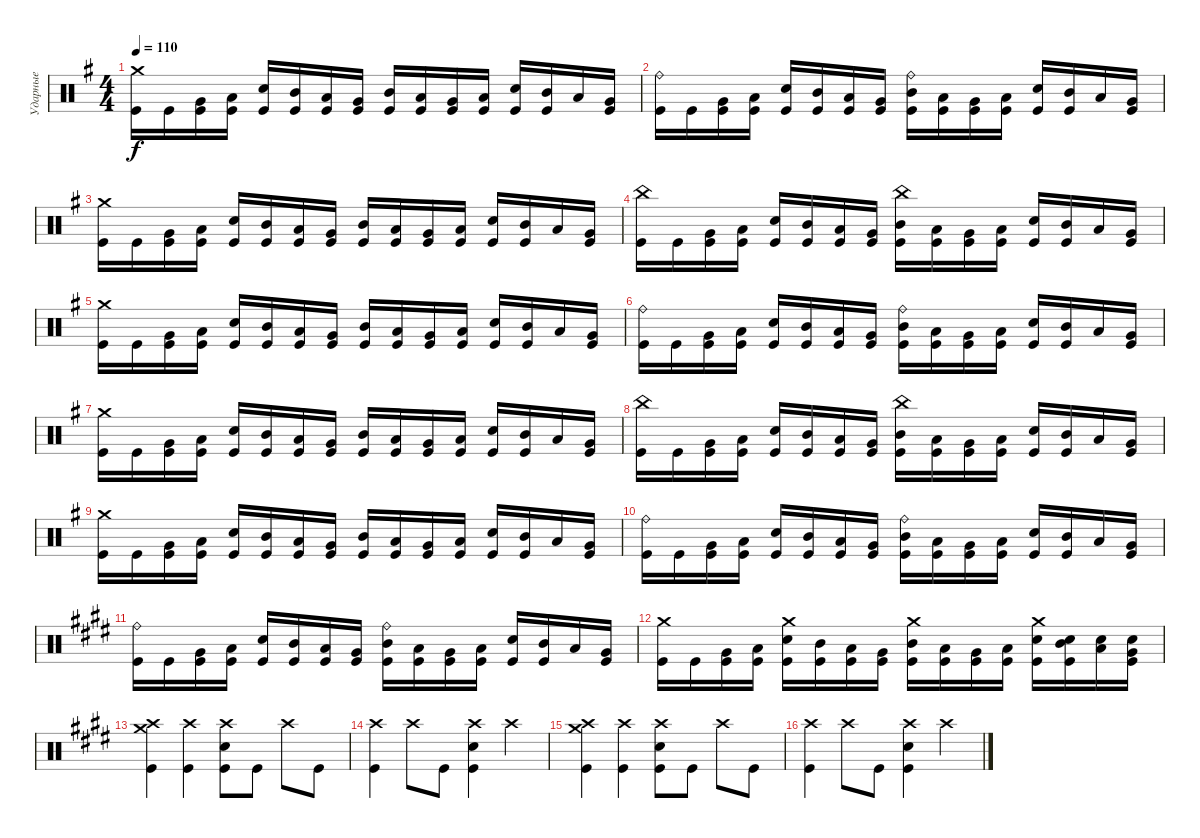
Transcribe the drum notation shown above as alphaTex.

\track ("Ударные" "Ударные") {instrument percussion}
\staff {score}
\articulation defaults
\ts (4 4)
\tempo 110
\clef neutral
\ks g
("Crash medium (hit)" "Kick (hit)").16{dy f} "Kick (hit)".16 ("Very Low Tom (hit)" "Kick (hit)").16 ("Low Floor Tom (hit)" "Kick (hit)").16 ("Electric Snare (hit)" "Kick (hit)").16 ("Mid Tom (hit)" "Kick (hit)").16 ("Low Tom (hit)" "Kick (hit)").16 ("Very Low Tom (hit)" "Kick (hit)").16 ("Mid Tom (hit)" "Kick (hit)").16 ("Low Tom (hit)" "Kick (hit)").16 ("Very Low Tom (hit)" "Kick (hit)").16 ("Low Floor Tom (hit)" "Kick (hit)").16 ("Electric Snare (hit)" "Kick (hit)").16 ("Mid Tom (hit)" "Kick (hit)").16 "Low Tom (hit)".16 ("Very Low Tom (hit)" "Kick (hit)").16 |
("Ride (bell)" "Kick (hit)").16 "Kick (hit)".16 ("Very Low Tom (hit)" "Kick (hit)").16 ("Low Floor Tom (hit)" "Kick (hit)").16 ("Electric Snare (hit)" "Kick (hit)").16 ("Mid Tom (hit)" "Kick (hit)").16 ("Low Tom (hit)" "Kick (hit)").16 ("Very Low Tom (hit)" "Kick (hit)").16 ("Ride (bell)" "Mid Tom (hit)" "Kick (hit)").16 ("Low Tom (hit)" "Kick (hit)").16 ("Very Low Tom (hit)" "Kick (hit)").16 ("Low Floor Tom (hit)" "Kick (hit)").16 ("Electric Snare (hit)" "Kick (hit)").16 ("Mid Tom (hit)" "Kick (hit)").16 "Low Tom (hit)".16 ("Very Low Tom (hit)" "Kick (hit)").16 |
("Crash medium (hit)" "Kick (hit)").16 "Kick (hit)".16 ("Very Low Tom (hit)" "Kick (hit)").16 ("Low Floor Tom (hit)" "Kick (hit)").16 ("Electric Snare (hit)" "Kick (hit)").16 ("Mid Tom (hit)" "Kick (hit)").16 ("Low Tom (hit)" "Kick (hit)").16 ("Very Low Tom (hit)" "Kick (hit)").16 ("Mid Tom (hit)" "Kick (hit)").16 ("Low Tom (hit)" "Kick (hit)").16 ("Very Low Tom (hit)" "Kick (hit)").16 ("Low Floor Tom (hit)" "Kick (hit)").16 ("Electric Snare (hit)" "Kick (hit)").16 ("Mid Tom (hit)" "Kick (hit)").16 "Low Tom (hit)".16 ("Very Low Tom (hit)" "Kick (hit)").16 |
("China (hit)" "Kick (hit)").16 "Kick (hit)".16 ("Very Low Tom (hit)" "Kick (hit)").16 ("Low Floor Tom (hit)" "Kick (hit)").16 ("Electric Snare (hit)" "Kick (hit)").16 ("Mid Tom (hit)" "Kick (hit)").16 ("Low Tom (hit)" "Kick (hit)").16 ("Very Low Tom (hit)" "Kick (hit)").16 ("China (hit)" "Mid Tom (hit)" "Kick (hit)").16 ("Low Tom (hit)" "Kick (hit)").16 ("Very Low Tom (hit)" "Kick (hit)").16 ("Low Floor Tom (hit)" "Kick (hit)").16 ("Electric Snare (hit)" "Kick (hit)").16 ("Mid Tom (hit)" "Kick (hit)").16 "Low Tom (hit)".16 ("Very Low Tom (hit)" "Kick (hit)").16 |
("Crash medium (hit)" "Kick (hit)").16 "Kick (hit)".16 ("Very Low Tom (hit)" "Kick (hit)").16 ("Low Floor Tom (hit)" "Kick (hit)").16 ("Electric Snare (hit)" "Kick (hit)").16 ("Mid Tom (hit)" "Kick (hit)").16 ("Low Tom (hit)" "Kick (hit)").16 ("Very Low Tom (hit)" "Kick (hit)").16 ("Mid Tom (hit)" "Kick (hit)").16 ("Low Tom (hit)" "Kick (hit)").16 ("Very Low Tom (hit)" "Kick (hit)").16 ("Low Floor Tom (hit)" "Kick (hit)").16 ("Electric Snare (hit)" "Kick (hit)").16 ("Mid Tom (hit)" "Kick (hit)").16 "Low Tom (hit)".16 ("Very Low Tom (hit)" "Kick (hit)").16 |
("Ride (bell)" "Kick (hit)").16 "Kick (hit)".16 ("Very Low Tom (hit)" "Kick (hit)").16 ("Low Floor Tom (hit)" "Kick (hit)").16 ("Electric Snare (hit)" "Kick (hit)").16 ("Mid Tom (hit)" "Kick (hit)").16 ("Low Tom (hit)" "Kick (hit)").16 ("Very Low Tom (hit)" "Kick (hit)").16 ("Ride (bell)" "Mid Tom (hit)" "Kick (hit)").16 ("Low Tom (hit)" "Kick (hit)").16 ("Very Low Tom (hit)" "Kick (hit)").16 ("Low Floor Tom (hit)" "Kick (hit)").16 ("Electric Snare (hit)" "Kick (hit)").16 ("Mid Tom (hit)" "Kick (hit)").16 "Low Tom (hit)".16 ("Very Low Tom (hit)" "Kick (hit)").16 |
("Crash medium (hit)" "Kick (hit)").16 "Kick (hit)".16 ("Very Low Tom (hit)" "Kick (hit)").16 ("Low Floor Tom (hit)" "Kick (hit)").16 ("Electric Snare (hit)" "Kick (hit)").16 ("Mid Tom (hit)" "Kick (hit)").16 ("Low Tom (hit)" "Kick (hit)").16 ("Very Low Tom (hit)" "Kick (hit)").16 ("Mid Tom (hit)" "Kick (hit)").16 ("Low Tom (hit)" "Kick (hit)").16 ("Very Low Tom (hit)" "Kick (hit)").16 ("Low Floor Tom (hit)" "Kick (hit)").16 ("Electric Snare (hit)" "Kick (hit)").16 ("Mid Tom (hit)" "Kick (hit)").16 "Low Tom (hit)".16 ("Very Low Tom (hit)" "Kick (hit)").16 |
("China (hit)" "Kick (hit)").16 "Kick (hit)".16 ("Very Low Tom (hit)" "Kick (hit)").16 ("Low Floor Tom (hit)" "Kick (hit)").16 ("Electric Snare (hit)" "Kick (hit)").16 ("Mid Tom (hit)" "Kick (hit)").16 ("Low Tom (hit)" "Kick (hit)").16 ("Very Low Tom (hit)" "Kick (hit)").16 ("China (hit)" "Mid Tom (hit)" "Kick (hit)").16 ("Low Tom (hit)" "Kick (hit)").16 ("Very Low Tom (hit)" "Kick (hit)").16 ("Low Floor Tom (hit)" "Kick (hit)").16 ("Electric Snare (hit)" "Kick (hit)").16 ("Mid Tom (hit)" "Kick (hit)").16 "Low Tom (hit)".16 ("Very Low Tom (hit)" "Kick (hit)").16 |
("Crash medium (hit)" "Kick (hit)").16 "Kick (hit)".16 ("Very Low Tom (hit)" "Kick (hit)").16 ("Low Floor Tom (hit)" "Kick (hit)").16 ("Electric Snare (hit)" "Kick (hit)").16 ("Mid Tom (hit)" "Kick (hit)").16 ("Low Tom (hit)" "Kick (hit)").16 ("Very Low Tom (hit)" "Kick (hit)").16 ("Mid Tom (hit)" "Kick (hit)").16 ("Low Tom (hit)" "Kick (hit)").16 ("Very Low Tom (hit)" "Kick (hit)").16 ("Low Floor Tom (hit)" "Kick (hit)").16 ("Electric Snare (hit)" "Kick (hit)").16 ("Mid Tom (hit)" "Kick (hit)").16 "Low Tom (hit)".16 ("Very Low Tom (hit)" "Kick (hit)").16 |
("Ride (bell)" "Kick (hit)").16 "Kick (hit)".16 ("Very Low Tom (hit)" "Kick (hit)").16 ("Low Floor Tom (hit)" "Kick (hit)").16 ("Electric Snare (hit)" "Kick (hit)").16 ("Mid Tom (hit)" "Kick (hit)").16 ("Low Tom (hit)" "Kick (hit)").16 ("Very Low Tom (hit)" "Kick (hit)").16 ("Ride (bell)" "Mid Tom (hit)" "Kick (hit)").16 ("Low Tom (hit)" "Kick (hit)").16 ("Very Low Tom (hit)" "Kick (hit)").16 ("Low Floor Tom (hit)" "Kick (hit)").16 ("Electric Snare (hit)" "Kick (hit)").16 ("Mid Tom (hit)" "Kick (hit)").16 "Low Tom (hit)".16 ("Very Low Tom (hit)" "Kick (hit)").16 |
\ks e
("Ride (bell)" "Kick (hit)").16 "Kick (hit)".16 ("Very Low Tom (hit)" "Kick (hit)").16 ("Low Floor Tom (hit)" "Kick (hit)").16 ("Electric Snare (hit)" "Kick (hit)").16 ("Mid Tom (hit)" "Kick (hit)").16 ("Low Tom (hit)" "Kick (hit)").16 ("Very Low Tom (hit)" "Kick (hit)").16 ("Ride (bell)" "Mid Tom (hit)" "Kick (hit)").16 ("Low Tom (hit)" "Kick (hit)").16 ("Very Low Tom (hit)" "Kick (hit)").16 ("Low Floor Tom (hit)" "Kick (hit)").16 ("Electric Snare (hit)" "Kick (hit)").16 ("Mid Tom (hit)" "Kick (hit)").16 "Low Tom (hit)".16 ("Very Low Tom (hit)" "Kick (hit)").16 |
("Crash medium (hit)" "Kick (hit)").16 "Kick (hit)".16 ("Very Low Tom (hit)" "Kick (hit)").16 ("Low Floor Tom (hit)" "Kick (hit)").16 ("Crash medium (hit)" "Electric Snare (hit)" "Kick (hit)").16 ("Mid Tom (hit)" "Kick (hit)").16 ("Low Tom (hit)" "Kick (hit)").16 ("Very Low Tom (hit)" "Kick (hit)").16 ("Crash medium (hit)" "Mid Tom (hit)" "Kick (hit)").16 ("Low Tom (hit)" "Kick (hit)").16 ("Very Low Tom (hit)" "Kick (hit)").16 ("Low Floor Tom (hit)" "Kick (hit)").16 ("Crash medium (hit)" "Electric Snare (hit)" "Kick (hit)").16 ("Electric Snare (hit)" "Mid Tom (hit)" "Kick (hit)").16 ("Electric Snare (hit)" "Low Tom (hit)").16 ("Electric Snare (hit)" "Very Low Tom (hit)" "Kick (hit)").16 |
("Crash high (hit)" "Crash medium (hit)" "Kick (hit)").4 ("Crash high (hit)" "Kick (hit)").4 ("Crash high (hit)" "Electric Snare (hit)" "Kick (hit)").8 "Kick (hit)".8 "Crash high (hit)".8 "Kick (hit)".8 |
("Crash high (hit)" "Kick (hit)").4 "Crash high (hit)".8 "Kick (hit)".8 ("Crash high (hit)" "Electric Snare (hit)" "Kick (hit)").4 "Crash high (hit)".4 |
("Crash high (hit)" "Crash medium (hit)" "Kick (hit)").4 ("Crash high (hit)" "Kick (hit)").4 ("Crash high (hit)" "Electric Snare (hit)" "Kick (hit)").8 "Kick (hit)".8 "Crash high (hit)".8 "Kick (hit)".8 |
("Crash high (hit)" "Kick (hit)").4 "Crash high (hit)".8 "Kick (hit)".8 ("Crash high (hit)" "Electric Snare (hit)" "Kick (hit)").4 "Crash high (hit)".4
